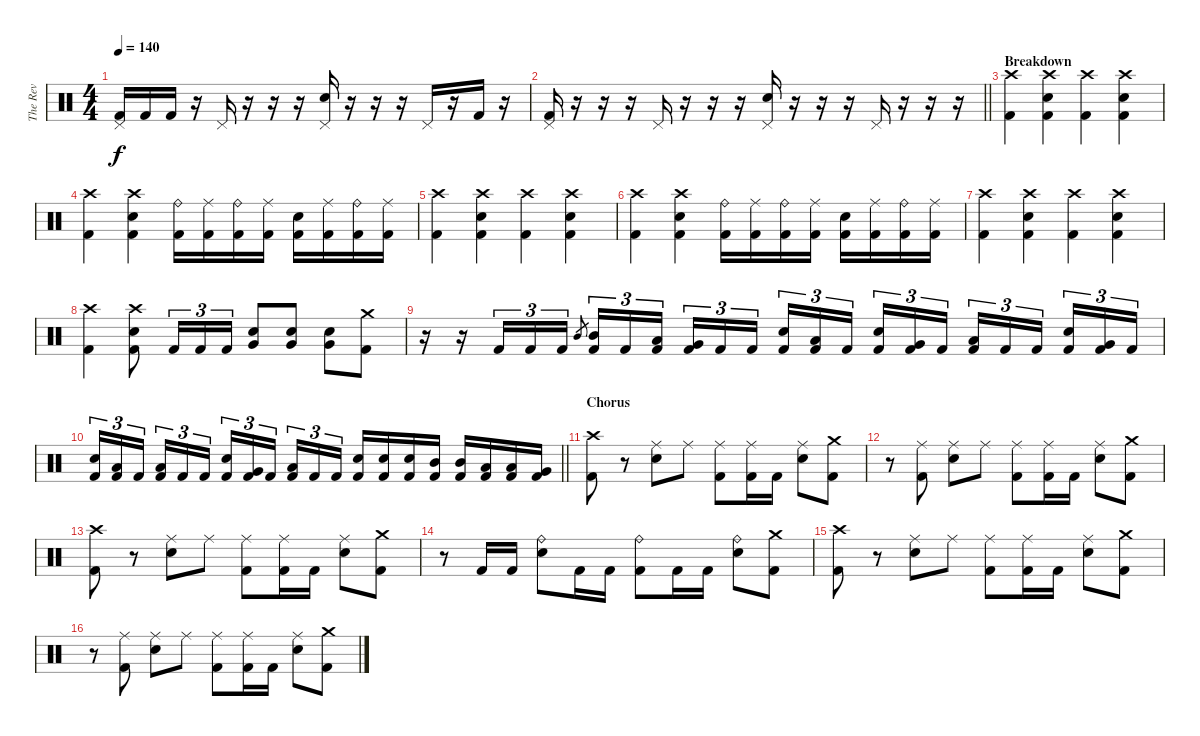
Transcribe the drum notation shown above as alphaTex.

\track ("The Rev" "The Rev") {instrument percussion}
\staff {score}
\articulation defaults
\ts (4 4)
\tempo 140
\clef neutral
\ks c
("Pedal Hi-Hat (hit)" "Kick (hit) 2").16{dy f} "Kick (hit) 2".16 "Kick (hit) 2".16 r.16 "Pedal Hi-Hat (hit)".16 r.16 r.16 r.16 ("Pedal Hi-Hat (hit)" "Electric Snare (hit)").16 r.16 r.16 r.16 "Pedal Hi-Hat (hit)".16 r.16 "Kick (hit) 2".16 r.16 |
\barLineRight lightlight
("Pedal Hi-Hat (hit)" "Kick (hit) 2").16 r.16 r.16 r.16 "Pedal Hi-Hat (hit)".16 r.16 r.16 r.16 ("Pedal Hi-Hat (hit)" "Electric Snare (hit)").16 r.16 r.16 r.16 "Pedal Hi-Hat (hit)".16 r.16 r.16 r.16 |
\section ("" "Breakdown")
("Crash high (hit)" "Kick (hit) 2").4 ("Crash high (hit)" "Electric Snare (hit)" "Kick (hit) 2").4 ("Crash high (hit)" "Kick (hit) 2").4 ("Crash high (hit)" "Electric Snare (hit)" "Kick (hit) 2").4 |
("Crash high (hit)" "Kick (hit) 2").4 ("Crash high (hit)" "Electric Snare (hit)" "Kick (hit) 2").4 ("Ride (bell)" "Kick (hit) 2").16 ("Ride (middle)" "Kick (hit) 2").16 ("Ride (bell)" "Kick (hit) 2").16 ("Ride (middle)" "Kick (hit) 2").16 ("Electric Snare (hit)" "Kick (hit) 2").16 ("Ride (middle)" "Kick (hit) 2").16 ("Ride (bell)" "Kick (hit) 2").16 ("Ride (middle)" "Kick (hit) 2").16 |
("Crash high (hit)" "Kick (hit) 2").4 ("Crash high (hit)" "Electric Snare (hit)" "Kick (hit) 2").4 ("Crash high (hit)" "Kick (hit) 2").4 ("Crash high (hit)" "Electric Snare (hit)" "Kick (hit) 2").4 |
("Crash high (hit)" "Kick (hit) 2").4 ("Crash high (hit)" "Electric Snare (hit)" "Kick (hit) 2").4 ("Ride (bell)" "Kick (hit) 2").16 ("Ride (middle)" "Kick (hit) 2").16 ("Ride (bell)" "Kick (hit) 2").16 ("Ride (middle)" "Kick (hit) 2").16 ("Electric Snare (hit)" "Kick (hit) 2").16 ("Ride (middle)" "Kick (hit) 2").16 ("Ride (bell)" "Kick (hit) 2").16 ("Ride (middle)" "Kick (hit) 2").16 |
("Crash high (hit)" "Kick (hit) 2").4 ("Crash high (hit)" "Electric Snare (hit)" "Kick (hit) 2").4 ("Crash high (hit)" "Kick (hit) 2").4 ("Crash high (hit)" "Electric Snare (hit)" "Kick (hit) 2").4 |
("Crash high (hit)" "Kick (hit) 2").4 ("Crash high (hit)" "Electric Snare (hit)" "Kick (hit) 2").8 "Kick (hit) 2".16{tu (3 2)} "Kick (hit) 2".16{tu (3 2)} "Kick (hit) 2".16{tu (3 2)} ("Electric Snare (hit)" "Very Low Tom (hit)").8 ("Electric Snare (hit)" "Very Low Tom (hit)").8 ("Electric Snare (hit)" "Very Low Tom (hit)").8 ("Crash medium (hit)" "Kick (hit) 2").8 |
r.16 r.16 "Kick (hit) 2".16{tu (3 2)} "Kick (hit) 2".16{tu (3 2)} "Kick (hit) 2".16{tu (3 2)} "Mid Tom (hit)".8{gr} ("Mid Tom (hit)" "Kick (hit) 2").16{tu (3 2)} "Kick (hit) 2".16{tu (3 2)} ("Low Tom (hit)" "Kick (hit) 2").16{tu (3 2) beam splitsecondary} ("Very Low Tom (hit)" "Kick (hit) 2").16{tu (3 2)} "Kick (hit) 2".16{tu (3 2)} "Kick (hit) 2".16{tu (3 2)} ("Electric Snare (hit)" "Kick (hit) 2").16{tu (3 2)} ("Low Tom (hit)" "Kick (hit) 2").16{tu (3 2)} "Kick (hit) 2".16{tu (3 2) beam splitsecondary} ("Electric Snare (hit)" "Kick (hit) 2").16{tu (3 2)} ("Very Low Tom (hit)" "Kick (hit) 2").16{tu (3 2)} "Kick (hit) 2".16{tu (3 2)} ("Low Floor Tom (hit)" "Kick (hit) 2").16{tu (3 2)} "Kick (hit) 2".16{tu (3 2)} "Kick (hit) 2".16{tu (3 2) beam splitsecondary} ("Electric Snare (hit)" "Kick (hit) 2").16{tu (3 2)} ("Very Low Tom (hit)" "Kick (hit) 2").16{tu (3 2)} "Kick (hit) 2".16{tu (3 2)} |
\barLineRight lightlight
("Electric Snare (hit)" "Kick (hit) 2").16{tu (3 2)} ("Low Floor Tom (hit)" "Kick (hit) 2").16{tu (3 2)} "Kick (hit) 2".16{tu (3 2) beam splitsecondary} ("Low Floor Tom (hit)" "Kick (hit) 2").16{tu (3 2)} "Kick (hit) 2".16{tu (3 2)} "Kick (hit) 2".16{tu (3 2)} ("Electric Snare (hit)" "Kick (hit) 2").16{tu (3 2)} ("Very Low Tom (hit)" "Kick (hit) 2").16{tu (3 2)} "Kick (hit) 2".16{tu (3 2) beam splitsecondary} ("Low Floor Tom (hit)" "Kick (hit) 2").16{tu (3 2)} "Kick (hit) 2".16{tu (3 2)} "Kick (hit) 2".16{tu (3 2)} ("Electric Snare (hit)" "Kick (hit) 2").16 ("Electric Snare (hit)" "Kick (hit) 2").16 ("Electric Snare (hit)" "Kick (hit) 2").16 ("Mid Tom (hit)" "Kick (hit) 2").16 ("Mid Tom (hit)" "Kick (hit) 2").16 ("Low Tom (hit)" "Kick (hit) 2").16 ("Low Tom (hit)" "Kick (hit) 2").16 ("Very Low Tom (hit)" "Kick (hit) 2").16 |
\section ("" "Chorus")
("Crash high (hit)" "Kick (hit) 2").8 r.8 ("Ride (middle)" "Electric Snare (hit)").8 "Ride (middle)".8 ("Ride (middle)" "Kick (hit) 2").8 ("Ride (middle)" "Kick (hit) 2").16 "Kick (hit) 2".16 ("Ride (middle)" "Electric Snare (hit)").8 ("Crash medium (hit)" "Kick (hit) 2").8 |
r.8 ("Ride (middle)" "Kick (hit) 2").8 ("Ride (middle)" "Electric Snare (hit)").8 "Ride (middle)".8 ("Ride (middle)" "Kick (hit) 2").8 ("Ride (middle)" "Kick (hit) 2").16 "Kick (hit) 2".16 ("Ride (middle)" "Electric Snare (hit)").8 ("Crash medium (hit)" "Kick (hit) 2").8 |
("Crash high (hit)" "Kick (hit) 2").8 r.8 ("Ride (middle)" "Electric Snare (hit)").8 "Ride (middle)".8 ("Ride (middle)" "Kick (hit) 2").8 ("Ride (middle)" "Kick (hit) 2").16 "Kick (hit) 2".16 ("Ride (middle)" "Electric Snare (hit)").8 ("Crash medium (hit)" "Kick (hit) 2").8 |
r.8 "Kick (hit) 2".16 "Kick (hit) 2".16 ("Ride (bell)" "Electric Snare (hit)").8 "Kick (hit) 2".16 "Kick (hit) 2".16 ("Ride (bell)" "Kick (hit) 2").8 "Kick (hit) 2".16 "Kick (hit) 2".16 ("Ride (bell)" "Electric Snare (hit)").8 ("Crash medium (hit)" "Kick (hit) 2").8 |
("Crash high (hit)" "Kick (hit) 2").8 r.8 ("Ride (middle)" "Electric Snare (hit)").8 "Ride (middle)".8 ("Ride (middle)" "Kick (hit) 2").8 ("Ride (middle)" "Kick (hit) 2").16 "Kick (hit) 2".16 ("Ride (middle)" "Electric Snare (hit)").8 ("Crash medium (hit)" "Kick (hit) 2").8 |
r.8 ("Ride (middle)" "Kick (hit) 2").8 ("Ride (middle)" "Electric Snare (hit)").8 "Ride (middle)".8 ("Ride (middle)" "Kick (hit) 2").8 ("Ride (middle)" "Kick (hit) 2").16 "Kick (hit) 2".16 ("Ride (middle)" "Electric Snare (hit)").8 ("Crash medium (hit)" "Kick (hit) 2").8
